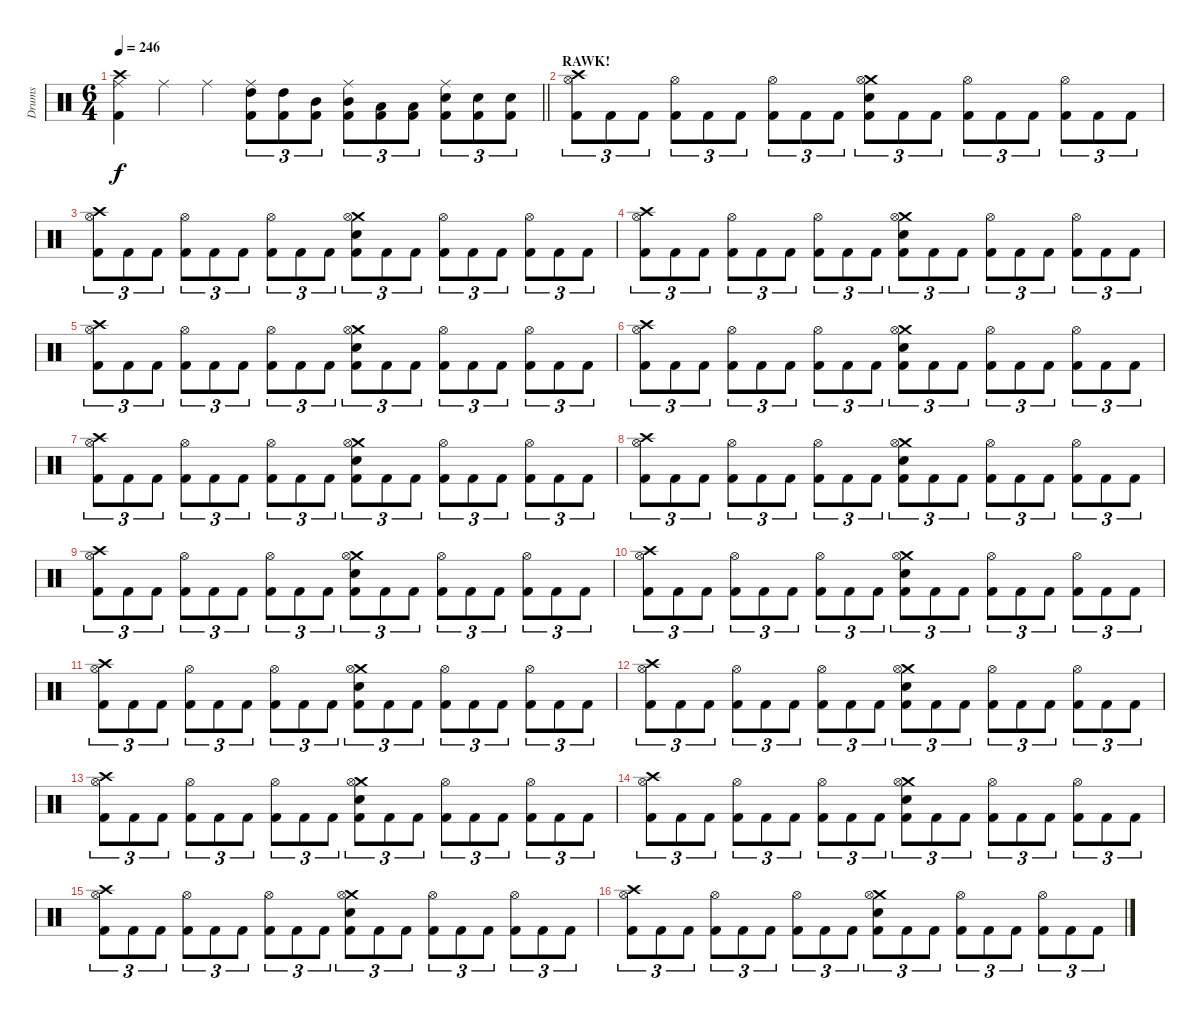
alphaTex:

\track ("Drums" "Drums") {instrument percussion}
\staff {score}
\articulation defaults
\ts (6 4)
\tempo 246
\clef neutral
\barLineRight lightlight
\ks c
("Crash high (hit)" "Ride (middle)" "Kick (hit) 2").4{dy f} "Ride (middle)".4 "Ride (middle)".4 ("Ride (middle)" "High Tom (hit)" "Kick (hit) 2").8{tu (3 2)} ("High Tom (hit)" "Kick (hit) 2").8{tu (3 2)} ("Mid Tom (hit)" "Kick (hit) 2").8{tu (3 2)} ("Ride (middle)" "Mid Tom (hit)" "Kick (hit) 2").8{tu (3 2)} ("Low Tom (hit)" "Kick (hit) 2").8{tu (3 2)} ("Low Tom (hit)" "Kick (hit) 2").8{tu (3 2)} ("Ride (middle)" "Snare (hit) 2" "Kick (hit) 2").8{tu (3 2)} ("Snare (hit) 2" "Kick (hit) 2").8{tu (3 2)} ("Snare (hit) 2" "Kick (hit) 2").8{tu (3 2)} |
\section ("" "RAWK!")
("Crash high (hit)" "Hi-Hat (open)" "Kick (hit) 2").8{tu (3 2)} "Kick (hit) 2".8{tu (3 2)} "Kick (hit) 2".8{tu (3 2)} ("Hi-Hat (open)" "Kick (hit) 2").8{tu (3 2)} "Kick (hit) 2".8{tu (3 2)} "Kick (hit) 2".8{tu (3 2)} ("Hi-Hat (open)" "Kick (hit) 2").8{tu (3 2)} "Kick (hit) 2".8{tu (3 2)} "Kick (hit) 2".8{tu (3 2)} ("Crash medium (hit)" "Hi-Hat (open)" "Snare (hit) 2" "Kick (hit) 2").8{tu (3 2)} "Kick (hit) 2".8{tu (3 2)} "Kick (hit) 2".8{tu (3 2)} ("Hi-Hat (open)" "Kick (hit) 2").8{tu (3 2)} "Kick (hit) 2".8{tu (3 2)} "Kick (hit) 2".8{tu (3 2)} ("Hi-Hat (open)" "Kick (hit) 2").8{tu (3 2)} "Kick (hit) 2".8{tu (3 2)} "Kick (hit) 2".8{tu (3 2)} |
("Crash high (hit)" "Hi-Hat (open)" "Kick (hit) 2").8{tu (3 2)} "Kick (hit) 2".8{tu (3 2)} "Kick (hit) 2".8{tu (3 2)} ("Hi-Hat (open)" "Kick (hit) 2").8{tu (3 2)} "Kick (hit) 2".8{tu (3 2)} "Kick (hit) 2".8{tu (3 2)} ("Hi-Hat (open)" "Kick (hit) 2").8{tu (3 2)} "Kick (hit) 2".8{tu (3 2)} "Kick (hit) 2".8{tu (3 2)} ("Crash medium (hit)" "Hi-Hat (open)" "Snare (hit) 2" "Kick (hit) 2").8{tu (3 2)} "Kick (hit) 2".8{tu (3 2)} "Kick (hit) 2".8{tu (3 2)} ("Hi-Hat (open)" "Kick (hit) 2").8{tu (3 2)} "Kick (hit) 2".8{tu (3 2)} "Kick (hit) 2".8{tu (3 2)} ("Hi-Hat (open)" "Kick (hit) 2").8{tu (3 2)} "Kick (hit) 2".8{tu (3 2)} "Kick (hit) 2".8{tu (3 2)} |
("Crash high (hit)" "Hi-Hat (open)" "Kick (hit) 2").8{tu (3 2)} "Kick (hit) 2".8{tu (3 2)} "Kick (hit) 2".8{tu (3 2)} ("Hi-Hat (open)" "Kick (hit) 2").8{tu (3 2)} "Kick (hit) 2".8{tu (3 2)} "Kick (hit) 2".8{tu (3 2)} ("Hi-Hat (open)" "Kick (hit) 2").8{tu (3 2)} "Kick (hit) 2".8{tu (3 2)} "Kick (hit) 2".8{tu (3 2)} ("Crash medium (hit)" "Hi-Hat (open)" "Snare (hit) 2" "Kick (hit) 2").8{tu (3 2)} "Kick (hit) 2".8{tu (3 2)} "Kick (hit) 2".8{tu (3 2)} ("Hi-Hat (open)" "Kick (hit) 2").8{tu (3 2)} "Kick (hit) 2".8{tu (3 2)} "Kick (hit) 2".8{tu (3 2)} ("Hi-Hat (open)" "Kick (hit) 2").8{tu (3 2)} "Kick (hit) 2".8{tu (3 2)} "Kick (hit) 2".8{tu (3 2)} |
("Crash high (hit)" "Hi-Hat (open)" "Kick (hit) 2").8{tu (3 2)} "Kick (hit) 2".8{tu (3 2)} "Kick (hit) 2".8{tu (3 2)} ("Hi-Hat (open)" "Kick (hit) 2").8{tu (3 2)} "Kick (hit) 2".8{tu (3 2)} "Kick (hit) 2".8{tu (3 2)} ("Hi-Hat (open)" "Kick (hit) 2").8{tu (3 2)} "Kick (hit) 2".8{tu (3 2)} "Kick (hit) 2".8{tu (3 2)} ("Crash medium (hit)" "Hi-Hat (open)" "Snare (hit) 2" "Kick (hit) 2").8{tu (3 2)} "Kick (hit) 2".8{tu (3 2)} "Kick (hit) 2".8{tu (3 2)} ("Hi-Hat (open)" "Kick (hit) 2").8{tu (3 2)} "Kick (hit) 2".8{tu (3 2)} "Kick (hit) 2".8{tu (3 2)} ("Hi-Hat (open)" "Kick (hit) 2").8{tu (3 2)} "Kick (hit) 2".8{tu (3 2)} "Kick (hit) 2".8{tu (3 2)} |
("Crash high (hit)" "Hi-Hat (open)" "Kick (hit) 2").8{tu (3 2)} "Kick (hit) 2".8{tu (3 2)} "Kick (hit) 2".8{tu (3 2)} ("Hi-Hat (open)" "Kick (hit) 2").8{tu (3 2)} "Kick (hit) 2".8{tu (3 2)} "Kick (hit) 2".8{tu (3 2)} ("Hi-Hat (open)" "Kick (hit) 2").8{tu (3 2)} "Kick (hit) 2".8{tu (3 2)} "Kick (hit) 2".8{tu (3 2)} ("Crash medium (hit)" "Hi-Hat (open)" "Snare (hit) 2" "Kick (hit) 2").8{tu (3 2)} "Kick (hit) 2".8{tu (3 2)} "Kick (hit) 2".8{tu (3 2)} ("Hi-Hat (open)" "Kick (hit) 2").8{tu (3 2)} "Kick (hit) 2".8{tu (3 2)} "Kick (hit) 2".8{tu (3 2)} ("Hi-Hat (open)" "Kick (hit) 2").8{tu (3 2)} "Kick (hit) 2".8{tu (3 2)} "Kick (hit) 2".8{tu (3 2)} |
("Crash high (hit)" "Hi-Hat (open)" "Kick (hit) 2").8{tu (3 2)} "Kick (hit) 2".8{tu (3 2)} "Kick (hit) 2".8{tu (3 2)} ("Hi-Hat (open)" "Kick (hit) 2").8{tu (3 2)} "Kick (hit) 2".8{tu (3 2)} "Kick (hit) 2".8{tu (3 2)} ("Hi-Hat (open)" "Kick (hit) 2").8{tu (3 2)} "Kick (hit) 2".8{tu (3 2)} "Kick (hit) 2".8{tu (3 2)} ("Crash medium (hit)" "Hi-Hat (open)" "Snare (hit) 2" "Kick (hit) 2").8{tu (3 2)} "Kick (hit) 2".8{tu (3 2)} "Kick (hit) 2".8{tu (3 2)} ("Hi-Hat (open)" "Kick (hit) 2").8{tu (3 2)} "Kick (hit) 2".8{tu (3 2)} "Kick (hit) 2".8{tu (3 2)} ("Hi-Hat (open)" "Kick (hit) 2").8{tu (3 2)} "Kick (hit) 2".8{tu (3 2)} "Kick (hit) 2".8{tu (3 2)} |
("Crash high (hit)" "Hi-Hat (open)" "Kick (hit) 2").8{tu (3 2)} "Kick (hit) 2".8{tu (3 2)} "Kick (hit) 2".8{tu (3 2)} ("Hi-Hat (open)" "Kick (hit) 2").8{tu (3 2)} "Kick (hit) 2".8{tu (3 2)} "Kick (hit) 2".8{tu (3 2)} ("Hi-Hat (open)" "Kick (hit) 2").8{tu (3 2)} "Kick (hit) 2".8{tu (3 2)} "Kick (hit) 2".8{tu (3 2)} ("Crash medium (hit)" "Hi-Hat (open)" "Snare (hit) 2" "Kick (hit) 2").8{tu (3 2)} "Kick (hit) 2".8{tu (3 2)} "Kick (hit) 2".8{tu (3 2)} ("Hi-Hat (open)" "Kick (hit) 2").8{tu (3 2)} "Kick (hit) 2".8{tu (3 2)} "Kick (hit) 2".8{tu (3 2)} ("Hi-Hat (open)" "Kick (hit) 2").8{tu (3 2)} "Kick (hit) 2".8{tu (3 2)} "Kick (hit) 2".8{tu (3 2)} |
("Crash high (hit)" "Hi-Hat (open)" "Kick (hit) 2").8{tu (3 2)} "Kick (hit) 2".8{tu (3 2)} "Kick (hit) 2".8{tu (3 2)} ("Hi-Hat (open)" "Kick (hit) 2").8{tu (3 2)} "Kick (hit) 2".8{tu (3 2)} "Kick (hit) 2".8{tu (3 2)} ("Hi-Hat (open)" "Kick (hit) 2").8{tu (3 2)} "Kick (hit) 2".8{tu (3 2)} "Kick (hit) 2".8{tu (3 2)} ("Crash medium (hit)" "Hi-Hat (open)" "Snare (hit) 2" "Kick (hit) 2").8{tu (3 2)} "Kick (hit) 2".8{tu (3 2)} "Kick (hit) 2".8{tu (3 2)} ("Hi-Hat (open)" "Kick (hit) 2").8{tu (3 2)} "Kick (hit) 2".8{tu (3 2)} "Kick (hit) 2".8{tu (3 2)} ("Hi-Hat (open)" "Kick (hit) 2").8{tu (3 2)} "Kick (hit) 2".8{tu (3 2)} "Kick (hit) 2".8{tu (3 2)} |
("Crash high (hit)" "Hi-Hat (open)" "Kick (hit) 2").8{tu (3 2)} "Kick (hit) 2".8{tu (3 2)} "Kick (hit) 2".8{tu (3 2)} ("Hi-Hat (open)" "Kick (hit) 2").8{tu (3 2)} "Kick (hit) 2".8{tu (3 2)} "Kick (hit) 2".8{tu (3 2)} ("Hi-Hat (open)" "Kick (hit) 2").8{tu (3 2)} "Kick (hit) 2".8{tu (3 2)} "Kick (hit) 2".8{tu (3 2)} ("Crash medium (hit)" "Hi-Hat (open)" "Snare (hit) 2" "Kick (hit) 2").8{tu (3 2)} "Kick (hit) 2".8{tu (3 2)} "Kick (hit) 2".8{tu (3 2)} ("Hi-Hat (open)" "Kick (hit) 2").8{tu (3 2)} "Kick (hit) 2".8{tu (3 2)} "Kick (hit) 2".8{tu (3 2)} ("Hi-Hat (open)" "Kick (hit) 2").8{tu (3 2)} "Kick (hit) 2".8{tu (3 2)} "Kick (hit) 2".8{tu (3 2)} |
("Crash high (hit)" "Hi-Hat (open)" "Kick (hit) 2").8{tu (3 2)} "Kick (hit) 2".8{tu (3 2)} "Kick (hit) 2".8{tu (3 2)} ("Hi-Hat (open)" "Kick (hit) 2").8{tu (3 2)} "Kick (hit) 2".8{tu (3 2)} "Kick (hit) 2".8{tu (3 2)} ("Hi-Hat (open)" "Kick (hit) 2").8{tu (3 2)} "Kick (hit) 2".8{tu (3 2)} "Kick (hit) 2".8{tu (3 2)} ("Crash medium (hit)" "Hi-Hat (open)" "Snare (hit) 2" "Kick (hit) 2").8{tu (3 2)} "Kick (hit) 2".8{tu (3 2)} "Kick (hit) 2".8{tu (3 2)} ("Hi-Hat (open)" "Kick (hit) 2").8{tu (3 2)} "Kick (hit) 2".8{tu (3 2)} "Kick (hit) 2".8{tu (3 2)} ("Hi-Hat (open)" "Kick (hit) 2").8{tu (3 2)} "Kick (hit) 2".8{tu (3 2)} "Kick (hit) 2".8{tu (3 2)} |
("Crash high (hit)" "Hi-Hat (open)" "Kick (hit) 2").8{tu (3 2)} "Kick (hit) 2".8{tu (3 2)} "Kick (hit) 2".8{tu (3 2)} ("Hi-Hat (open)" "Kick (hit) 2").8{tu (3 2)} "Kick (hit) 2".8{tu (3 2)} "Kick (hit) 2".8{tu (3 2)} ("Hi-Hat (open)" "Kick (hit) 2").8{tu (3 2)} "Kick (hit) 2".8{tu (3 2)} "Kick (hit) 2".8{tu (3 2)} ("Crash medium (hit)" "Hi-Hat (open)" "Snare (hit) 2" "Kick (hit) 2").8{tu (3 2)} "Kick (hit) 2".8{tu (3 2)} "Kick (hit) 2".8{tu (3 2)} ("Hi-Hat (open)" "Kick (hit) 2").8{tu (3 2)} "Kick (hit) 2".8{tu (3 2)} "Kick (hit) 2".8{tu (3 2)} ("Hi-Hat (open)" "Kick (hit) 2").8{tu (3 2)} "Kick (hit) 2".8{tu (3 2)} "Kick (hit) 2".8{tu (3 2)} |
("Crash high (hit)" "Hi-Hat (open)" "Kick (hit) 2").8{tu (3 2)} "Kick (hit) 2".8{tu (3 2)} "Kick (hit) 2".8{tu (3 2)} ("Hi-Hat (open)" "Kick (hit) 2").8{tu (3 2)} "Kick (hit) 2".8{tu (3 2)} "Kick (hit) 2".8{tu (3 2)} ("Hi-Hat (open)" "Kick (hit) 2").8{tu (3 2)} "Kick (hit) 2".8{tu (3 2)} "Kick (hit) 2".8{tu (3 2)} ("Crash medium (hit)" "Hi-Hat (open)" "Snare (hit) 2" "Kick (hit) 2").8{tu (3 2)} "Kick (hit) 2".8{tu (3 2)} "Kick (hit) 2".8{tu (3 2)} ("Hi-Hat (open)" "Kick (hit) 2").8{tu (3 2)} "Kick (hit) 2".8{tu (3 2)} "Kick (hit) 2".8{tu (3 2)} ("Hi-Hat (open)" "Kick (hit) 2").8{tu (3 2)} "Kick (hit) 2".8{tu (3 2)} "Kick (hit) 2".8{tu (3 2)} |
("Crash high (hit)" "Hi-Hat (open)" "Kick (hit) 2").8{tu (3 2)} "Kick (hit) 2".8{tu (3 2)} "Kick (hit) 2".8{tu (3 2)} ("Hi-Hat (open)" "Kick (hit) 2").8{tu (3 2)} "Kick (hit) 2".8{tu (3 2)} "Kick (hit) 2".8{tu (3 2)} ("Hi-Hat (open)" "Kick (hit) 2").8{tu (3 2)} "Kick (hit) 2".8{tu (3 2)} "Kick (hit) 2".8{tu (3 2)} ("Crash medium (hit)" "Hi-Hat (open)" "Snare (hit) 2" "Kick (hit) 2").8{tu (3 2)} "Kick (hit) 2".8{tu (3 2)} "Kick (hit) 2".8{tu (3 2)} ("Hi-Hat (open)" "Kick (hit) 2").8{tu (3 2)} "Kick (hit) 2".8{tu (3 2)} "Kick (hit) 2".8{tu (3 2)} ("Hi-Hat (open)" "Kick (hit) 2").8{tu (3 2)} "Kick (hit) 2".8{tu (3 2)} "Kick (hit) 2".8{tu (3 2)} |
("Crash high (hit)" "Hi-Hat (open)" "Kick (hit) 2").8{tu (3 2)} "Kick (hit) 2".8{tu (3 2)} "Kick (hit) 2".8{tu (3 2)} ("Hi-Hat (open)" "Kick (hit) 2").8{tu (3 2)} "Kick (hit) 2".8{tu (3 2)} "Kick (hit) 2".8{tu (3 2)} ("Hi-Hat (open)" "Kick (hit) 2").8{tu (3 2)} "Kick (hit) 2".8{tu (3 2)} "Kick (hit) 2".8{tu (3 2)} ("Crash medium (hit)" "Hi-Hat (open)" "Snare (hit) 2" "Kick (hit) 2").8{tu (3 2)} "Kick (hit) 2".8{tu (3 2)} "Kick (hit) 2".8{tu (3 2)} ("Hi-Hat (open)" "Kick (hit) 2").8{tu (3 2)} "Kick (hit) 2".8{tu (3 2)} "Kick (hit) 2".8{tu (3 2)} ("Hi-Hat (open)" "Kick (hit) 2").8{tu (3 2)} "Kick (hit) 2".8{tu (3 2)} "Kick (hit) 2".8{tu (3 2)} |
("Crash high (hit)" "Hi-Hat (open)" "Kick (hit) 2").8{tu (3 2)} "Kick (hit) 2".8{tu (3 2)} "Kick (hit) 2".8{tu (3 2)} ("Hi-Hat (open)" "Kick (hit) 2").8{tu (3 2)} "Kick (hit) 2".8{tu (3 2)} "Kick (hit) 2".8{tu (3 2)} ("Hi-Hat (open)" "Kick (hit) 2").8{tu (3 2)} "Kick (hit) 2".8{tu (3 2)} "Kick (hit) 2".8{tu (3 2)} ("Crash medium (hit)" "Hi-Hat (open)" "Snare (hit) 2" "Kick (hit) 2").8{tu (3 2)} "Kick (hit) 2".8{tu (3 2)} "Kick (hit) 2".8{tu (3 2)} ("Hi-Hat (open)" "Kick (hit) 2").8{tu (3 2)} "Kick (hit) 2".8{tu (3 2)} "Kick (hit) 2".8{tu (3 2)} ("Hi-Hat (open)" "Kick (hit) 2").8{tu (3 2)} "Kick (hit) 2".8{tu (3 2)} "Kick (hit) 2".8{tu (3 2)}
